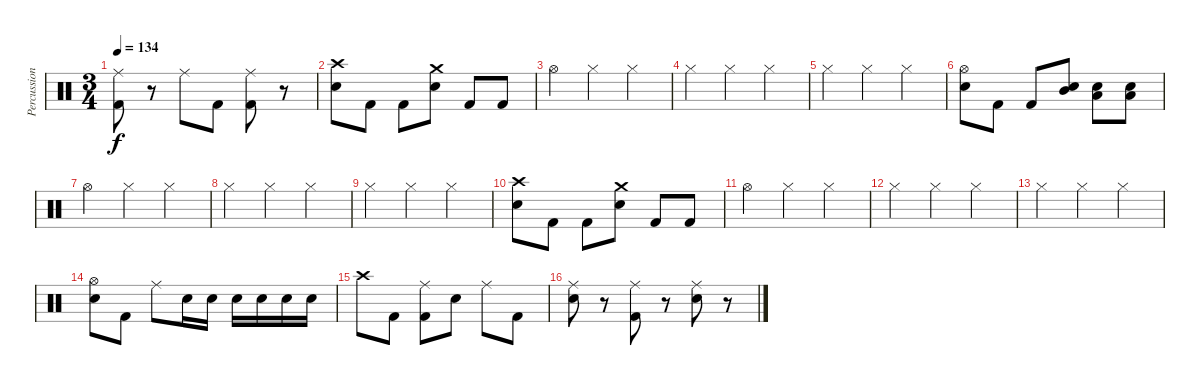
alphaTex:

\track ("Percussion" "Percussion") {instrument percussion}
\staff {score}
\articulation defaults
\ts (3 4)
\tempo 134
\clef neutral
\ks c
("Ride (middle)" "Kick (hit) 2").8{dy f} r.8 "Ride (middle)".8 "Kick (hit) 2".8 ("Ride (middle)" "Kick (hit) 2").8 r.8 |
("Crash high (hit)" "Snare (hit) 2").8 "Kick (hit) 2".8 "Kick (hit) 2".8 ("Crash medium (hit)" "Snare (hit) 2").8 "Kick (hit) 2".8 "Kick (hit) 2".8 |
"Hi-Hat (open)".4 "Hi-Hat (closed)".4 "Hi-Hat (closed)".4 |
"Hi-Hat (closed)".4 "Hi-Hat (closed)".4 "Hi-Hat (closed)".4 |
"Hi-Hat (closed)".4 "Hi-Hat (closed)".4 "Hi-Hat (closed)".4 |
("Hi-Hat (open)" "Snare (hit) 2").8 "Kick (hit) 2".8 "Kick (hit) 2".8 ("Mid Tom (hit)" "Snare (hit) 2").8 ("Low Tom (hit)" "Snare (hit) 2").8 ("Low Tom (hit)" "Snare (hit) 2").8 |
"Hi-Hat (open)".4 "Hi-Hat (closed)".4 "Hi-Hat (closed)".4 |
"Hi-Hat (closed)".4 "Hi-Hat (closed)".4 "Hi-Hat (closed)".4 |
"Hi-Hat (closed)".4 "Hi-Hat (closed)".4 "Hi-Hat (closed)".4 |
("Crash high (hit)" "Snare (hit) 2").8 "Kick (hit) 2".8 "Kick (hit) 2".8 ("Crash medium (hit)" "Snare (hit) 2").8 "Kick (hit) 2".8 "Kick (hit) 2".8 |
"Hi-Hat (open)".4 "Hi-Hat (closed)".4 "Hi-Hat (closed)".4 |
"Hi-Hat (closed)".4 "Hi-Hat (closed)".4 "Hi-Hat (closed)".4 |
"Hi-Hat (closed)".4 "Hi-Hat (closed)".4 "Hi-Hat (closed)".4 |
("Hi-Hat (open)" "Snare (hit) 2").8 "Kick (hit) 2".8 "Ride (middle)".8 "Snare (hit) 2".16 "Snare (hit) 2".16 "Snare (hit) 2".16 "Snare (hit) 2".16 "Snare (hit) 2".16 "Snare (hit) 2".16 |
"Crash high (hit)".8 "Kick (hit) 2".8 ("Ride (middle)" "Kick (hit) 2").8 "Snare (hit) 2".8 "Ride (middle)".8 "Kick (hit) 2".8 |
("Ride (middle)" "Snare (hit) 2").8 r.8 ("Ride (middle)" "Kick (hit) 2").8 r.8 ("Ride (middle)" "Snare (hit) 2").8 r.8
